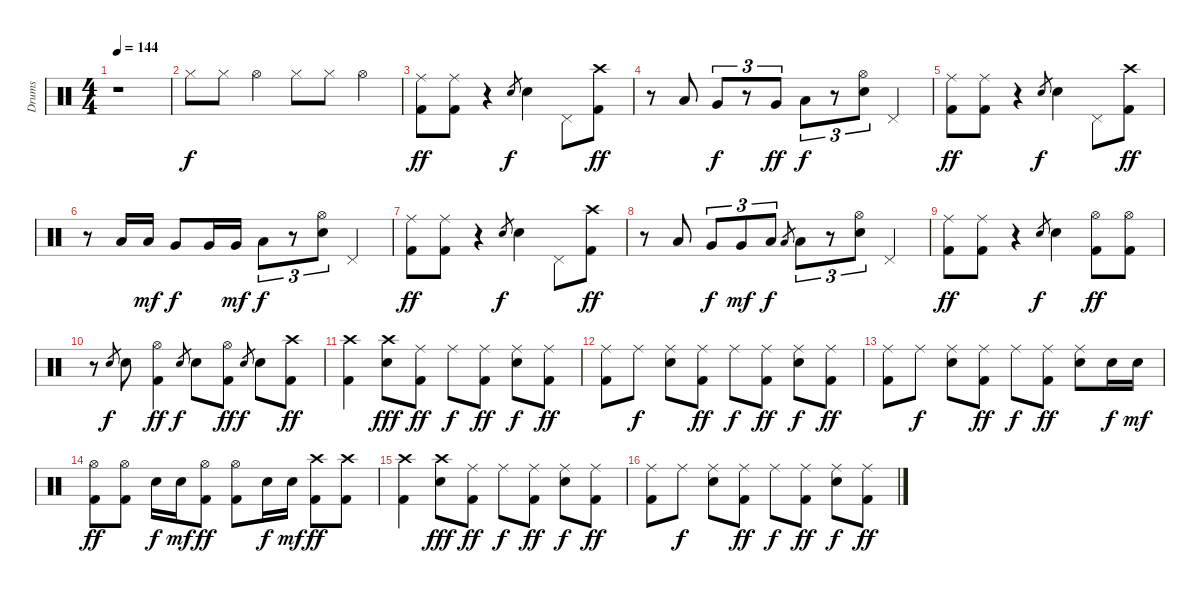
\track ("Drums" "Drums") {instrument percussion}
\staff {score}
\articulation defaults
\ts (4 4)
\tempo 144
\clef neutral
\ks c
r.1{dy f} |
"Hi-Hat (closed)".8 "Hi-Hat (closed)".8 "Hi-Hat (open)".4 "Hi-Hat (closed)".8 "Hi-Hat (closed)".8 "Hi-Hat (open)".4 |
("Ride (middle)" "Kick (hit) 2").8{dy ff} ("Ride (middle)" "Kick (hit) 2").8 r.4 "Snare (hit) 2".8{gr dy f} "Snare (hit) 2".4 "Pedal Hi-Hat (hit)".8 ("Crash high (hit)" "Kick (hit) 2").8{dy ff} |
r.8 "Low Tom (hit)".8 "Very Low Tom (hit)".8{tu (3 2) dy f} r.8{tu (3 2)} "Very Low Tom (hit)".8{tu (3 2) dy ff} "Low Floor Tom (hit)".8{tu (3 2) dy f} r.8{tu (3 2)} ("Hi-Hat (open)" "Snare (hit) 2").8{tu (3 2)} "Pedal Hi-Hat (hit)".4 |
("Ride (middle)" "Kick (hit) 2").8{dy ff} ("Ride (middle)" "Kick (hit) 2").8 r.4 "Snare (hit) 2".8{gr dy f} "Snare (hit) 2".4 "Pedal Hi-Hat (hit)".8 ("Crash high (hit)" "Kick (hit) 2").8{dy ff} |
r.8 "Low Tom (hit)".16 "Low Tom (hit)".16{dy mf} "Very Low Tom (hit)".8{dy f} "Very Low Tom (hit)".16 "Very Low Tom (hit)".16{dy mf} "Low Floor Tom (hit)".8{tu (3 2) dy f} r.8{tu (3 2)} ("Hi-Hat (open)" "Snare (hit) 2").8{tu (3 2)} "Pedal Hi-Hat (hit)".4 |
("Ride (middle)" "Kick (hit) 2").8{dy ff} ("Ride (middle)" "Kick (hit) 2").8 r.4 "Snare (hit) 2".8{gr dy f} "Snare (hit) 2".4 "Pedal Hi-Hat (hit)".8 ("Crash high (hit)" "Kick (hit) 2").8{dy ff} |
r.8 "Low Tom (hit)".8 "Very Low Tom (hit)".8{tu (3 2) dy f} "Very Low Tom (hit)".8{tu (3 2) dy mf} "Low Floor Tom (hit)".8{tu (3 2) dy f} "Low Floor Tom (hit)".8{gr} "Low Floor Tom (hit)".8{tu (3 2)} r.8{tu (3 2)} ("Hi-Hat (open)" "Snare (hit) 2").8{tu (3 2)} "Pedal Hi-Hat (hit)".4 |
("Ride (middle)" "Kick (hit) 2").8{dy ff} ("Ride (middle)" "Kick (hit) 2").8 r.4 "Snare (hit) 2".8{gr dy f} "Snare (hit) 2".4 ("Hi-Hat (open)" "Kick (hit) 2").8{dy ff} ("Hi-Hat (open)" "Kick (hit) 2").8 |
r.8 "Snare (hit) 2".8{gr dy f} "Snare (hit) 2".8 ("Hi-Hat (open)" "Kick (hit) 2").4{dy ff} "Snare (hit) 2".8{gr dy f} "Snare (hit) 2".8 ("Hi-Hat (open)" "Kick (hit) 2").8{dy ff} "Snare (hit) 2".8{gr dy f} "Snare (hit) 2".8 ("Crash high (hit)" "Kick (hit) 2").8{dy ff} |
("Crash high (hit)" "Kick (hit) 2").4 ("Crash high (hit)" "Snare (hit) 2").8{dy fff} ("Ride (middle)" "Kick (hit) 2").8{dy ff} "Ride (middle)".8{dy f} ("Ride (middle)" "Kick (hit) 2").8{dy ff} ("Ride (middle)" "Snare (hit) 2").8{dy f} ("Ride (middle)" "Kick (hit) 2").8{dy ff} |
("Ride (middle)" "Kick (hit) 2").8 "Ride (middle)".8{dy f} ("Ride (middle)" "Snare (hit) 2").8 ("Ride (middle)" "Kick (hit) 2").8{dy ff} "Ride (middle)".8{dy f} ("Ride (middle)" "Kick (hit) 2").8{dy ff} ("Ride (middle)" "Snare (hit) 2").8{dy f} ("Ride (middle)" "Kick (hit) 2").8{dy ff} |
("Ride (middle)" "Kick (hit) 2").8 "Ride (middle)".8{dy f} ("Ride (middle)" "Snare (hit) 2").8 ("Ride (middle)" "Kick (hit) 2").8{dy ff} "Ride (middle)".8{dy f} ("Ride (middle)" "Kick (hit) 2").8{dy ff} ("Ride (middle)" "Snare (hit) 2").8 "Snare (hit) 2".16{dy f} "Snare (hit) 2".16{dy mf} |
("Hi-Hat (open)" "Kick (hit) 2").8{dy ff} ("Hi-Hat (open)" "Kick (hit) 2").8 "Snare (hit) 2".16{dy f} "Snare (hit) 2".16{dy mf} ("Hi-Hat (open)" "Kick (hit) 2").8{dy ff} ("Hi-Hat (open)" "Kick (hit) 2").8 "Snare (hit) 2".16{dy f} "Snare (hit) 2".16{dy mf} ("Crash high (hit)" "Kick (hit) 2").8{dy ff} ("Crash high (hit)" "Kick (hit) 2").8 |
("Crash high (hit)" "Kick (hit) 2").4 ("Crash high (hit)" "Snare (hit) 2").8{dy fff} ("Ride (middle)" "Kick (hit) 2").8{dy ff} "Ride (middle)".8{dy f} ("Ride (middle)" "Kick (hit) 2").8{dy ff} ("Ride (middle)" "Snare (hit) 2").8{dy f} ("Ride (middle)" "Kick (hit) 2").8{dy ff} |
("Ride (middle)" "Kick (hit) 2").8 "Ride (middle)".8{dy f} ("Ride (middle)" "Snare (hit) 2").8 ("Ride (middle)" "Kick (hit) 2").8{dy ff} "Ride (middle)".8{dy f} ("Ride (middle)" "Kick (hit) 2").8{dy ff} ("Ride (middle)" "Snare (hit) 2").8{dy f} ("Ride (middle)" "Kick (hit) 2").8{dy ff}
